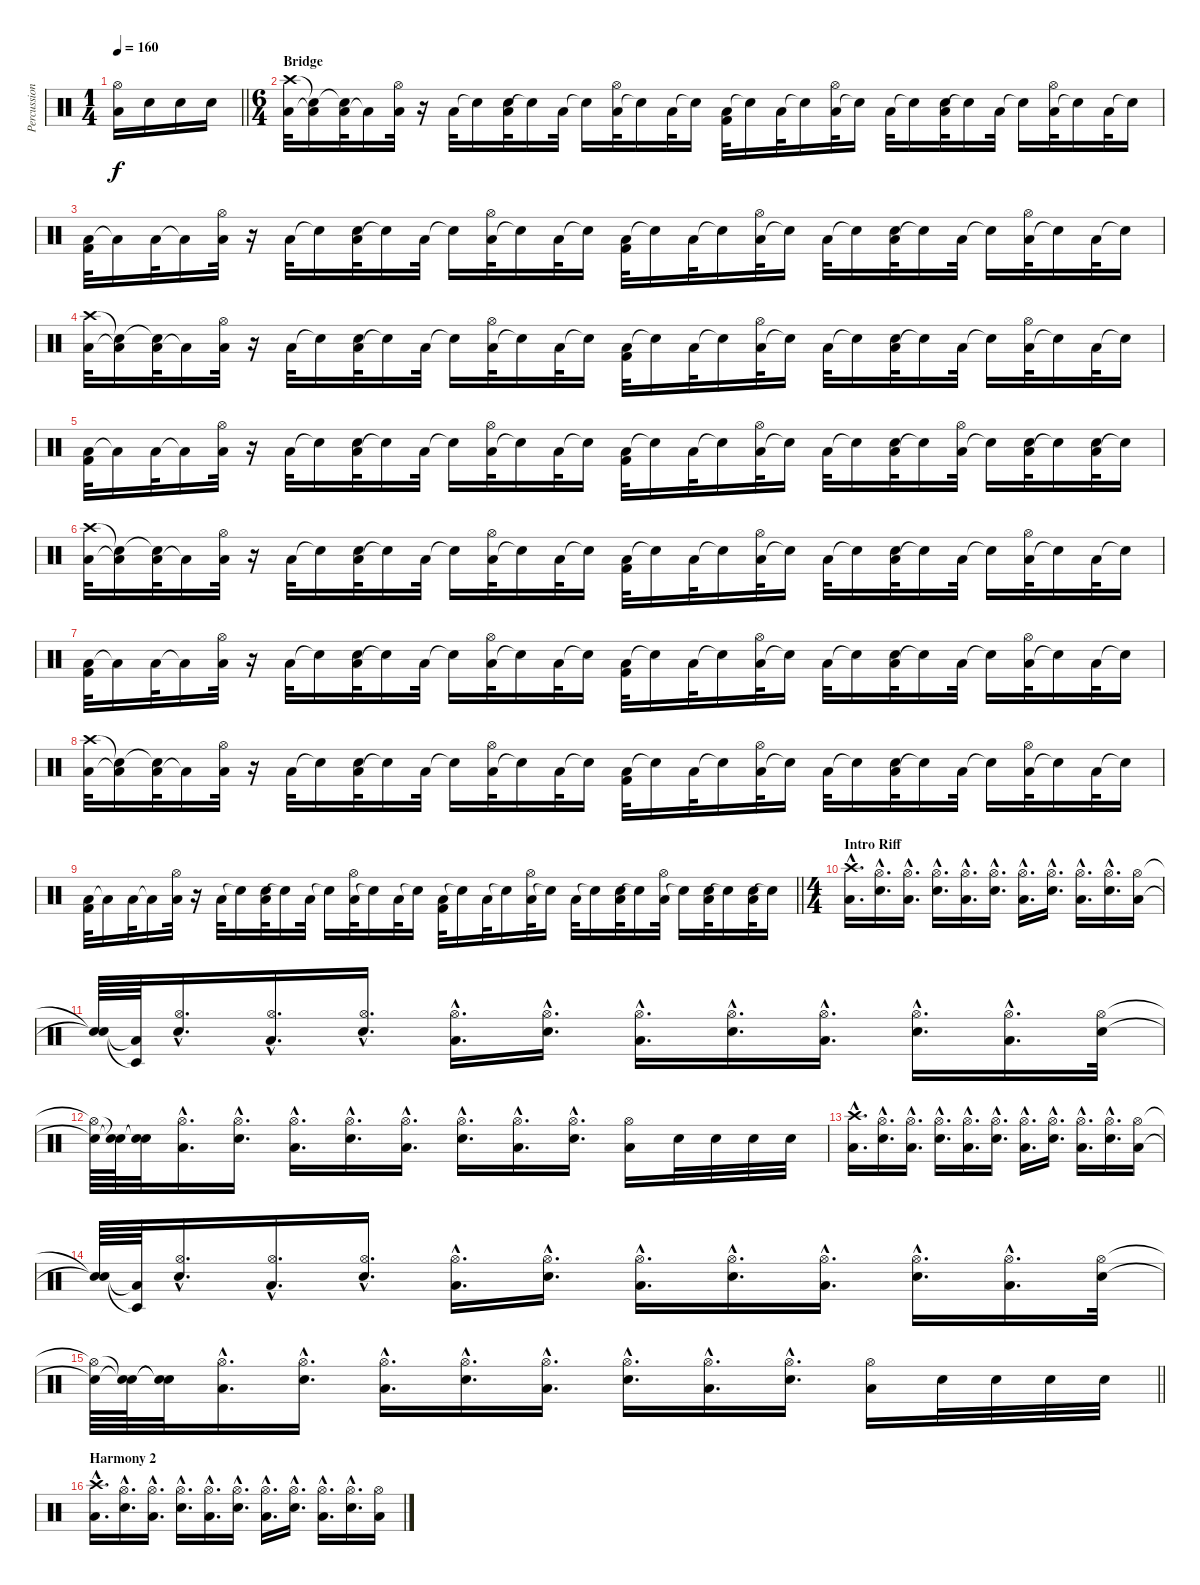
\track ("Percussion 1" "Percussion") {instrument percussion}
\staff {score}
\articulation defaults
\ts (1 4)
\tempo 160
\clef neutral
\barLineRight lightlight
\ks c
("Low Floor Tom (hit)" "Hi-Hat (open)").16{dy f} "Snare (hit) 2".16 "Snare (hit) 2".16 "Snare (hit) 2".16 |
\ts (6 4)
\section ("" "Bridge")
("Low Floor Tom (hit)" "Crash high (hit)").32 ("Low Floor Tom (hit)"{t} "Snare (hit)"{t}).16 ("Low Floor Tom (hit)" "Snare (hit)"{t}).32 "Low Floor Tom (hit)"{t}.16 ("Low Floor Tom (hit)" "Hi-Hat (open)").32 r.16 "Low Floor Tom (hit)".32 "Snare (hit)"{t}.16 ("Low Floor Tom (hit)" "Snare (hit) 2").32 "Snare (hit)"{t}.16 "Low Floor Tom (hit)".32 "Snare (hit)"{t}.16 ("Low Floor Tom (hit)" "Hi-Hat (open)").32 "Snare (hit)"{t}.16 "Low Floor Tom (hit)".32 "Snare (hit)"{t}.16 ("Low Floor Tom (hit)" "Kick (hit) 2").32 "Snare (hit)"{t}.16 "Low Floor Tom (hit)".32 "Snare (hit)"{t}.16 ("Low Floor Tom (hit)" "Hi-Hat (open)").32 "Snare (hit)"{t}.16 "Low Floor Tom (hit)".32 "Snare (hit)"{t}.16 ("Low Floor Tom (hit)" "Snare (hit) 2").32 "Snare (hit)"{t}.16 "Low Floor Tom (hit)".32 "Snare (hit)"{t}.16 ("Low Floor Tom (hit)" "Hi-Hat (open)").32 "Snare (hit)"{t}.16 "Low Floor Tom (hit)".32 "Snare (hit)"{t}.16 |
("Low Floor Tom (hit)" "Kick (hit) 2").32 "Low Floor Tom (hit)"{t}.16 "Low Floor Tom (hit)".32 "Low Floor Tom (hit)"{t}.16 ("Low Floor Tom (hit)" "Hi-Hat (open)").32 r.16 "Low Floor Tom (hit)".32 "Snare (hit)"{t}.16 ("Low Floor Tom (hit)" "Snare (hit) 2").32 "Snare (hit)"{t}.16 "Low Floor Tom (hit)".32 "Snare (hit)"{t}.16 ("Low Floor Tom (hit)" "Hi-Hat (open)").32 "Snare (hit)"{t}.16 "Low Floor Tom (hit)".32 "Snare (hit)"{t}.16 ("Low Floor Tom (hit)" "Kick (hit) 2").32 "Snare (hit)"{t}.16 "Low Floor Tom (hit)".32 "Snare (hit)"{t}.16 ("Low Floor Tom (hit)" "Hi-Hat (open)").32 "Snare (hit)"{t}.16 "Low Floor Tom (hit)".32 "Snare (hit)"{t}.16 ("Low Floor Tom (hit)" "Snare (hit) 2").32 "Snare (hit)"{t}.16 "Low Floor Tom (hit)".32 "Snare (hit)"{t}.16 ("Low Floor Tom (hit)" "Hi-Hat (open)").32 "Snare (hit)"{t}.16 "Low Floor Tom (hit)".32 "Snare (hit)"{t}.16 |
("Low Floor Tom (hit)" "Crash high (hit)").32 ("Low Floor Tom (hit)"{t} "Snare (hit)"{t}).16 ("Low Floor Tom (hit)" "Snare (hit)"{t}).32 "Low Floor Tom (hit)"{t}.16 ("Low Floor Tom (hit)" "Hi-Hat (open)").32 r.16 "Low Floor Tom (hit)".32 "Snare (hit)"{t}.16 ("Low Floor Tom (hit)" "Snare (hit) 2").32 "Snare (hit)"{t}.16 "Low Floor Tom (hit)".32 "Snare (hit)"{t}.16 ("Low Floor Tom (hit)" "Hi-Hat (open)").32 "Snare (hit)"{t}.16 "Low Floor Tom (hit)".32 "Snare (hit)"{t}.16 ("Low Floor Tom (hit)" "Kick (hit) 2").32 "Snare (hit)"{t}.16 "Low Floor Tom (hit)".32 "Snare (hit)"{t}.16 ("Low Floor Tom (hit)" "Hi-Hat (open)").32 "Snare (hit)"{t}.16 "Low Floor Tom (hit)".32 "Snare (hit)"{t}.16 ("Low Floor Tom (hit)" "Snare (hit) 2").32 "Snare (hit)"{t}.16 "Low Floor Tom (hit)".32 "Snare (hit)"{t}.16 ("Low Floor Tom (hit)" "Hi-Hat (open)").32 "Snare (hit)"{t}.16 "Low Floor Tom (hit)".32 "Snare (hit)"{t}.16 |
("Low Floor Tom (hit)" "Kick (hit) 2").32 "Low Floor Tom (hit)"{t}.16 "Low Floor Tom (hit)".32 "Low Floor Tom (hit)"{t}.16 ("Low Floor Tom (hit)" "Hi-Hat (open)").32 r.16 "Low Floor Tom (hit)".32 "Snare (hit)"{t}.16 ("Low Floor Tom (hit)" "Snare (hit) 2").32 "Snare (hit)"{t}.16 "Low Floor Tom (hit)".32 "Snare (hit)"{t}.16 ("Low Floor Tom (hit)" "Hi-Hat (open)").32 "Snare (hit)"{t}.16 "Low Floor Tom (hit)".32 "Snare (hit)"{t}.16 ("Low Floor Tom (hit)" "Kick (hit) 2").32 "Snare (hit)"{t}.16 "Low Floor Tom (hit)".32 "Snare (hit)"{t}.16 ("Low Floor Tom (hit)" "Hi-Hat (open)").32 "Snare (hit)"{t}.16 "Low Floor Tom (hit)".32 "Snare (hit)"{t}.16 ("Low Floor Tom (hit)" "Snare (hit) 2").32 "Snare (hit)"{t}.16 ("Low Floor Tom (hit)" "Hi-Hat (open)").32 "Snare (hit)"{t}.16 ("Low Floor Tom (hit)" "Snare (hit) 2").32 "Snare (hit)"{t}.16 ("Low Floor Tom (hit)" "Snare (hit) 2").32 "Snare (hit)"{t}.16 |
("Low Floor Tom (hit)" "Crash high (hit)").32 ("Low Floor Tom (hit)"{t} "Snare (hit)"{t}).16 ("Low Floor Tom (hit)" "Snare (hit)"{t}).32 "Low Floor Tom (hit)"{t}.16 ("Low Floor Tom (hit)" "Hi-Hat (open)").32 r.16 "Low Floor Tom (hit)".32 "Snare (hit)"{t}.16 ("Low Floor Tom (hit)" "Snare (hit) 2").32 "Snare (hit)"{t}.16 "Low Floor Tom (hit)".32 "Snare (hit)"{t}.16 ("Low Floor Tom (hit)" "Hi-Hat (open)").32 "Snare (hit)"{t}.16 "Low Floor Tom (hit)".32 "Snare (hit)"{t}.16 ("Low Floor Tom (hit)" "Kick (hit) 2").32 "Snare (hit)"{t}.16 "Low Floor Tom (hit)".32 "Snare (hit)"{t}.16 ("Low Floor Tom (hit)" "Hi-Hat (open)").32 "Snare (hit)"{t}.16 "Low Floor Tom (hit)".32 "Snare (hit)"{t}.16 ("Low Floor Tom (hit)" "Snare (hit) 2").32 "Snare (hit)"{t}.16 "Low Floor Tom (hit)".32 "Snare (hit)"{t}.16 ("Low Floor Tom (hit)" "Hi-Hat (open)").32 "Snare (hit)"{t}.16 "Low Floor Tom (hit)".32 "Snare (hit)"{t}.16 |
("Low Floor Tom (hit)" "Kick (hit) 2").32 "Low Floor Tom (hit)"{t}.16 "Low Floor Tom (hit)".32 "Low Floor Tom (hit)"{t}.16 ("Low Floor Tom (hit)" "Hi-Hat (open)").32 r.16 "Low Floor Tom (hit)".32 "Snare (hit)"{t}.16 ("Low Floor Tom (hit)" "Snare (hit) 2").32 "Snare (hit)"{t}.16 "Low Floor Tom (hit)".32 "Snare (hit)"{t}.16 ("Low Floor Tom (hit)" "Hi-Hat (open)").32 "Snare (hit)"{t}.16 "Low Floor Tom (hit)".32 "Snare (hit)"{t}.16 ("Low Floor Tom (hit)" "Kick (hit) 2").32 "Snare (hit)"{t}.16 "Low Floor Tom (hit)".32 "Snare (hit)"{t}.16 ("Low Floor Tom (hit)" "Hi-Hat (open)").32 "Snare (hit)"{t}.16 "Low Floor Tom (hit)".32 "Snare (hit)"{t}.16 ("Low Floor Tom (hit)" "Snare (hit) 2").32 "Snare (hit)"{t}.16 "Low Floor Tom (hit)".32 "Snare (hit)"{t}.16 ("Low Floor Tom (hit)" "Hi-Hat (open)").32 "Snare (hit)"{t}.16 "Low Floor Tom (hit)".32 "Snare (hit)"{t}.16 |
("Low Floor Tom (hit)" "Crash high (hit)").32 ("Low Floor Tom (hit)"{t} "Snare (hit)"{t}).16 ("Low Floor Tom (hit)" "Snare (hit)"{t}).32 "Low Floor Tom (hit)"{t}.16 ("Low Floor Tom (hit)" "Hi-Hat (open)").32 r.16 "Low Floor Tom (hit)".32 "Snare (hit)"{t}.16 ("Low Floor Tom (hit)" "Snare (hit) 2").32 "Snare (hit)"{t}.16 "Low Floor Tom (hit)".32 "Snare (hit)"{t}.16 ("Low Floor Tom (hit)" "Hi-Hat (open)").32 "Snare (hit)"{t}.16 "Low Floor Tom (hit)".32 "Snare (hit)"{t}.16 ("Low Floor Tom (hit)" "Kick (hit) 2").32 "Snare (hit)"{t}.16 "Low Floor Tom (hit)".32 "Snare (hit)"{t}.16 ("Low Floor Tom (hit)" "Hi-Hat (open)").32 "Snare (hit)"{t}.16 "Low Floor Tom (hit)".32 "Snare (hit)"{t}.16 ("Low Floor Tom (hit)" "Snare (hit) 2").32 "Snare (hit)"{t}.16 "Low Floor Tom (hit)".32 "Snare (hit)"{t}.16 ("Low Floor Tom (hit)" "Hi-Hat (open)").32 "Snare (hit)"{t}.16 "Low Floor Tom (hit)".32 "Snare (hit)"{t}.16 |
\barLineRight lightlight
("Low Floor Tom (hit)" "Kick (hit) 2").32 "Low Floor Tom (hit)"{t}.16 "Low Floor Tom (hit)".32 "Low Floor Tom (hit)"{t}.16 ("Low Floor Tom (hit)" "Hi-Hat (open)").32 r.16 "Low Floor Tom (hit)".32 "Snare (hit)"{t}.16 ("Low Floor Tom (hit)" "Snare (hit) 2").32 "Snare (hit)"{t}.16 "Low Floor Tom (hit)".32 "Snare (hit)"{t}.16 ("Low Floor Tom (hit)" "Hi-Hat (open)").32 "Snare (hit)"{t}.16 "Low Floor Tom (hit)".32 "Snare (hit)"{t}.16 ("Low Floor Tom (hit)" "Kick (hit) 2").32 "Snare (hit)"{t}.16 "Low Floor Tom (hit)".32 "Snare (hit)"{t}.16 ("Low Floor Tom (hit)" "Hi-Hat (open)").32 "Snare (hit)"{t}.16 "Low Floor Tom (hit)".32 "Snare (hit)"{t}.16 ("Low Floor Tom (hit)" "Snare (hit) 2").32 "Snare (hit)"{t}.16 ("Low Floor Tom (hit)" "Hi-Hat (open)").32 "Snare (hit)"{t}.16 ("Low Floor Tom (hit)" "Snare (hit) 2").32 "Snare (hit)"{t}.16 ("Low Floor Tom (hit)" "Snare (hit) 2").32 "Snare (hit)"{t}.16 |
\ts (4 4)
\section ("" "Intro Riff")
("Low Floor Tom (hit)"{hac} "Crash high (hit)"{hac}).16{d} ("Snare (hit) 2"{hac} "Hi-Hat (open)"{hac}).16{d} ("Low Floor Tom (hit)"{hac} "Hi-Hat (open)"{hac}).16{d} ("Snare (hit) 2"{hac} "Hi-Hat (open)"{hac}).16{d} ("Low Floor Tom (hit)"{hac} "Hi-Hat (open)"{hac}).16{d} ("Snare (hit) 2"{hac} "Hi-Hat (open)"{hac}).16{d} ("Low Floor Tom (hit)"{hac} "Hi-Hat (open)"{hac}).16{d} ("Snare (hit) 2"{hac} "Hi-Hat (open)"{hac}).16{d} ("Low Floor Tom (hit)"{hac} "Hi-Hat (open)"{hac}).16{d} ("Snare (hit) 2"{hac} "Hi-Hat (open)"{hac}).16{d} ("Low Floor Tom (hit)" "Hi-Hat (open)").16 |
("Snare (hit)"{t} "Snare (hit)"{t}).64 ("Low Floor Tom (hit)"{t} "Timbale low (hit)"{t}).64 ("Snare (hit) 2"{hac} "Hi-Hat (open)"{hac}).16{d} ("Low Floor Tom (hit)"{hac} "Hi-Hat (open)"{hac}).16{d} ("Snare (hit) 2"{hac} "Hi-Hat (open)"{hac}).16{d} ("Low Floor Tom (hit)"{hac} "Hi-Hat (open)"{hac}).16{d} ("Snare (hit) 2"{hac} "Hi-Hat (open)"{hac}).16{d} ("Low Floor Tom (hit)"{hac} "Hi-Hat (open)"{hac}).16{d} ("Snare (hit) 2"{hac} "Hi-Hat (open)"{hac}).16{d} ("Low Floor Tom (hit)"{hac} "Hi-Hat (open)"{hac}).16{d} ("Snare (hit) 2"{hac} "Hi-Hat (open)"{hac}).16{d} ("Low Floor Tom (hit)"{hac} "Hi-Hat (open)"{hac}).16{d} ("Snare (hit) 2" "Hi-Hat (open)").32 |
("Snare (hit) 2"{t} "Hi-Hat (open)"{t}).64 ("Snare (hit)"{t} "Snare (hit)"{t}).64 ("Snare (hit)"{t} "Snare (hit)"{t}).32 ("Low Floor Tom (hit)"{hac} "Hi-Hat (open)"{hac}).16{d} ("Snare (hit) 2"{hac} "Hi-Hat (open)"{hac}).16{d} ("Low Floor Tom (hit)"{hac} "Hi-Hat (open)"{hac}).16{d} ("Snare (hit) 2"{hac} "Hi-Hat (open)"{hac}).16{d} ("Low Floor Tom (hit)"{hac} "Hi-Hat (open)"{hac}).16{d} ("Snare (hit) 2"{hac} "Hi-Hat (open)"{hac}).16{d} ("Low Floor Tom (hit)"{hac} "Hi-Hat (open)"{hac}).16{d} ("Snare (hit) 2"{hac} "Hi-Hat (open)"{hac}).16{d} ("Low Floor Tom (hit)" "Hi-Hat (open)").16 "Snare (hit) 2".32 "Snare (hit) 2".32 "Snare (hit) 2".32 "Snare (hit) 2".32 |
("Low Floor Tom (hit)"{hac} "Crash high (hit)"{hac}).16{d} ("Snare (hit) 2"{hac} "Hi-Hat (open)"{hac}).16{d} ("Low Floor Tom (hit)"{hac} "Hi-Hat (open)"{hac}).16{d} ("Snare (hit) 2"{hac} "Hi-Hat (open)"{hac}).16{d} ("Low Floor Tom (hit)"{hac} "Hi-Hat (open)"{hac}).16{d} ("Snare (hit) 2"{hac} "Hi-Hat (open)"{hac}).16{d} ("Low Floor Tom (hit)"{hac} "Hi-Hat (open)"{hac}).16{d} ("Snare (hit) 2"{hac} "Hi-Hat (open)"{hac}).16{d} ("Low Floor Tom (hit)"{hac} "Hi-Hat (open)"{hac}).16{d} ("Snare (hit) 2"{hac} "Hi-Hat (open)"{hac}).16{d} ("Low Floor Tom (hit)" "Hi-Hat (open)").16 |
("Snare (hit)"{t} "Snare (hit)"{t}).64 ("Low Floor Tom (hit)"{t} "Timbale low (hit)"{t}).64 ("Snare (hit) 2"{hac} "Hi-Hat (open)"{hac}).16{d} ("Low Floor Tom (hit)"{hac} "Hi-Hat (open)"{hac}).16{d} ("Snare (hit) 2"{hac} "Hi-Hat (open)"{hac}).16{d} ("Low Floor Tom (hit)"{hac} "Hi-Hat (open)"{hac}).16{d} ("Snare (hit) 2"{hac} "Hi-Hat (open)"{hac}).16{d} ("Low Floor Tom (hit)"{hac} "Hi-Hat (open)"{hac}).16{d} ("Snare (hit) 2"{hac} "Hi-Hat (open)"{hac}).16{d} ("Low Floor Tom (hit)"{hac} "Hi-Hat (open)"{hac}).16{d} ("Snare (hit) 2"{hac} "Hi-Hat (open)"{hac}).16{d} ("Low Floor Tom (hit)"{hac} "Hi-Hat (open)"{hac}).16{d} ("Snare (hit) 2" "Hi-Hat (open)").32 |
\barLineRight lightlight
("Snare (hit) 2"{t} "Hi-Hat (open)"{t}).64 ("Snare (hit)"{t} "Snare (hit)"{t}).64 ("Snare (hit)"{t} "Snare (hit)"{t}).32 ("Low Floor Tom (hit)"{hac} "Hi-Hat (open)"{hac}).16{d} ("Snare (hit) 2"{hac} "Hi-Hat (open)"{hac}).16{d} ("Low Floor Tom (hit)"{hac} "Hi-Hat (open)"{hac}).16{d} ("Snare (hit) 2"{hac} "Hi-Hat (open)"{hac}).16{d} ("Low Floor Tom (hit)"{hac} "Hi-Hat (open)"{hac}).16{d} ("Snare (hit) 2"{hac} "Hi-Hat (open)"{hac}).16{d} ("Low Floor Tom (hit)"{hac} "Hi-Hat (open)"{hac}).16{d} ("Snare (hit) 2"{hac} "Hi-Hat (open)"{hac}).16{d} ("Low Floor Tom (hit)" "Hi-Hat (open)").16 "Snare (hit) 2".32 "Snare (hit) 2".32 "Snare (hit) 2".32 "Snare (hit) 2".32 |
\section ("" "Harmony 2")
("Low Floor Tom (hit)"{hac} "Crash high (hit)"{hac}).16{d} ("Snare (hit) 2"{hac} "Hi-Hat (open)"{hac}).16{d} ("Low Floor Tom (hit)"{hac} "Hi-Hat (open)"{hac}).16{d} ("Snare (hit) 2"{hac} "Hi-Hat (open)"{hac}).16{d} ("Low Floor Tom (hit)"{hac} "Hi-Hat (open)"{hac}).16{d} ("Snare (hit) 2"{hac} "Hi-Hat (open)"{hac}).16{d} ("Low Floor Tom (hit)"{hac} "Hi-Hat (open)"{hac}).16{d} ("Snare (hit) 2"{hac} "Hi-Hat (open)"{hac}).16{d} ("Low Floor Tom (hit)"{hac} "Hi-Hat (open)"{hac}).16{d} ("Snare (hit) 2"{hac} "Hi-Hat (open)"{hac}).16{d} ("Low Floor Tom (hit)" "Hi-Hat (open)").16
